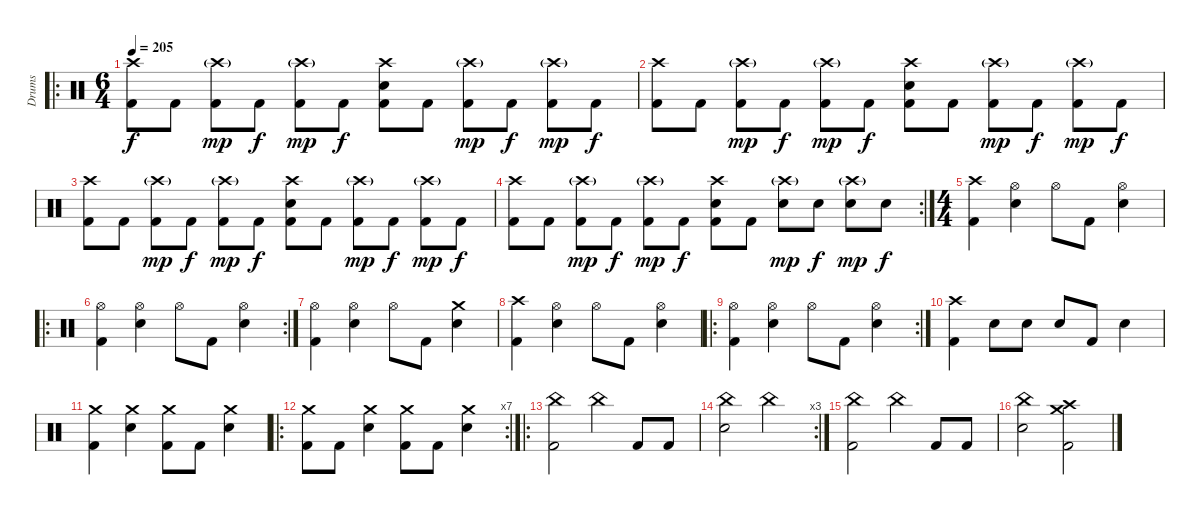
\track ("Drums" "Drums") {instrument percussion}
\staff {score}
\articulation defaults
\ro
\ts (6 4)
\tempo 205
\clef neutral
\ks c
("Crash high (hit)" "Kick (hit) 2").8{dy f} "Kick (hit) 2".8 ("Crash high (hit)"{g} "Kick (hit) 2").8{dy mp} "Kick (hit) 2".8{dy f} ("Crash high (hit)"{g} "Kick (hit) 2").8{dy mp} "Kick (hit) 2".8{dy f} ("Crash high (hit)" "Electric Snare (hit)" "Kick (hit) 2").8 "Kick (hit) 2".8 ("Crash high (hit)"{g} "Kick (hit) 2").8{dy mp} "Kick (hit) 2".8{dy f} ("Crash high (hit)"{g} "Kick (hit) 2").8{dy mp} "Kick (hit) 2".8{dy f} |
("Crash high (hit)" "Kick (hit) 2").8 "Kick (hit) 2".8 ("Crash high (hit)"{g} "Kick (hit) 2").8{dy mp} "Kick (hit) 2".8{dy f} ("Crash high (hit)"{g} "Kick (hit) 2").8{dy mp} "Kick (hit) 2".8{dy f} ("Crash high (hit)" "Electric Snare (hit)" "Kick (hit) 2").8 "Kick (hit) 2".8 ("Crash high (hit)"{g} "Kick (hit) 2").8{dy mp} "Kick (hit) 2".8{dy f} ("Crash high (hit)"{g} "Kick (hit) 2").8{dy mp} "Kick (hit) 2".8{dy f} |
("Crash high (hit)" "Kick (hit) 2").8 "Kick (hit) 2".8 ("Crash high (hit)"{g} "Kick (hit) 2").8{dy mp} "Kick (hit) 2".8{dy f} ("Crash high (hit)"{g} "Kick (hit) 2").8{dy mp} "Kick (hit) 2".8{dy f} ("Crash high (hit)" "Electric Snare (hit)" "Kick (hit) 2").8 "Kick (hit) 2".8 ("Crash high (hit)"{g} "Kick (hit) 2").8{dy mp} "Kick (hit) 2".8{dy f} ("Crash high (hit)"{g} "Kick (hit) 2").8{dy mp} "Kick (hit) 2".8{dy f} |
\rc 2
("Crash high (hit)" "Kick (hit) 2").8 "Kick (hit) 2".8 ("Crash high (hit)"{g} "Kick (hit) 2").8{dy mp} "Kick (hit) 2".8{dy f} ("Crash high (hit)"{g} "Kick (hit) 2").8{dy mp} "Kick (hit) 2".8{dy f} ("Crash high (hit)" "Electric Snare (hit)" "Kick (hit) 2").8 "Kick (hit) 2".8 ("Crash high (hit)"{g} "Electric Snare (hit)").8{dy mp} "Electric Snare (hit)".8{dy f} ("Crash high (hit)"{g} "Electric Snare (hit)").8{dy mp} "Electric Snare (hit)".8{dy f} |
\ts (4 4)
("Crash high (hit)" "Kick (hit) 2").4 ("Hi-Hat (open)" "Electric Snare (hit)").4 "Hi-Hat (open)".8 "Kick (hit) 2".8 ("Hi-Hat (open)" "Electric Snare (hit)").4 |
\ro
\rc 2
("Hi-Hat (open)" "Kick (hit) 2").4 ("Hi-Hat (open)" "Electric Snare (hit)").4 "Hi-Hat (open)".8 "Kick (hit) 2".8 ("Hi-Hat (open)" "Electric Snare (hit)").4 |
("Hi-Hat (open)" "Kick (hit) 2").4 ("Hi-Hat (open)" "Electric Snare (hit)").4 "Hi-Hat (open)".8 "Kick (hit) 2".8 ("Crash medium (hit)" "Electric Snare (hit)").4 |
("Crash high (hit)" "Kick (hit) 2").4 ("Hi-Hat (open)" "Electric Snare (hit)").4 "Hi-Hat (open)".8 "Kick (hit) 2".8 ("Hi-Hat (open)" "Electric Snare (hit)").4 |
\ro
\rc 2
("Hi-Hat (open)" "Kick (hit) 2").4 ("Hi-Hat (open)" "Electric Snare (hit)").4 "Hi-Hat (open)".8 "Kick (hit) 2".8 ("Hi-Hat (open)" "Electric Snare (hit)").4 |
("Crash high (hit)" "Kick (hit) 2").4 "Electric Snare (hit)".8 "Electric Snare (hit)".8 "Electric Snare (hit)".8 "Kick (hit) 2".8 "Electric Snare (hit)".4 |
("Crash medium (hit)" "Kick (hit) 2").4 ("Crash medium (hit)" "Electric Snare (hit)").4 ("Crash medium (hit)" "Kick (hit) 2").8 "Kick (hit) 2".8 ("Crash medium (hit)" "Electric Snare (hit)").4 |
\ro
\rc 7
("Crash medium (hit)" "Kick (hit) 2").8 "Kick (hit) 2".8 ("Crash medium (hit)" "Electric Snare (hit)").4 ("Crash medium (hit)" "Kick (hit) 2").8 "Kick (hit) 2".8 ("Crash medium (hit)" "Electric Snare (hit)").4 |
\ro
("China (hit)" "Kick (hit) 2").2 "China (hit)".4 "Kick (hit) 2".8 "Kick (hit) 2".8 |
\rc 3
("China (hit)" "Electric Snare (hit)").2 "China (hit)".2 |
("China (hit)" "Kick (hit) 2").2 "China (hit)".4 "Kick (hit) 2".8 "Kick (hit) 2".8 |
("China (hit)" "Electric Snare (hit)").2 ("Crash high (hit)" "Crash medium (hit)" "Kick (hit) 2").2
